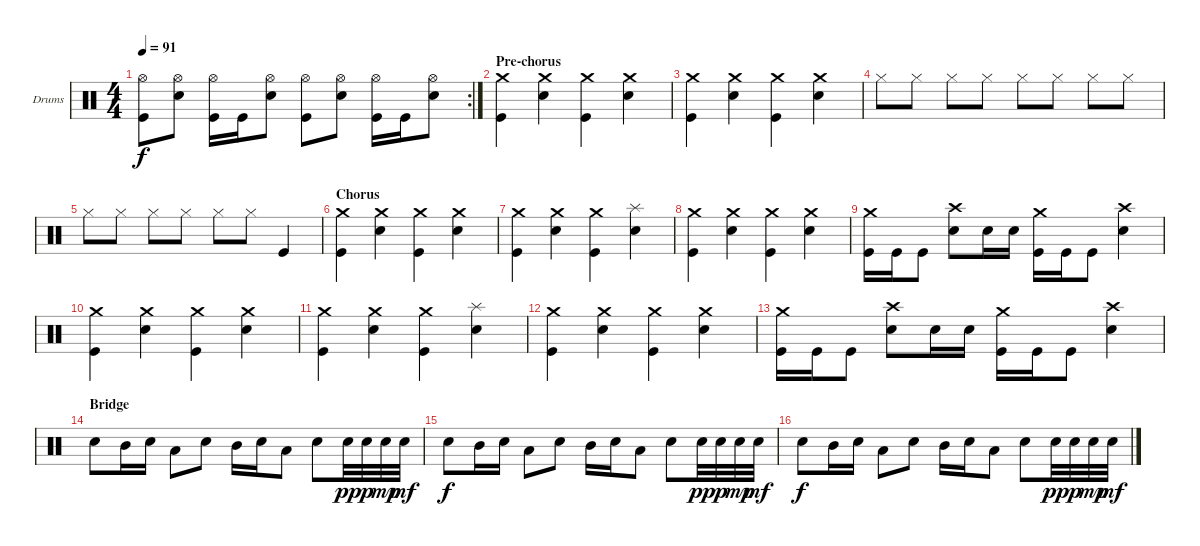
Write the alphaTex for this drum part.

\defaultSystemsLayout 4
\bracketExtendMode groupsimilarinstruments
\firstSystemTrackNameOrientation horizontal
\otherSystemsTrackNameOrientation horizontal
\track ("Drumkit" "Drums") {instrument percussion}
\staff {score}
\articulation defaults
\rc 2
\ts (4 4)
\tempo 91
\clef neutral
\scale
0.355932
\ks c
("Kick (hit)" "Hi-Hat (open)").8{dy f} ("Snare (hit) 2" "Hi-Hat (open)").8 ("Kick (hit)" "Hi-Hat (open)").16 "Kick (hit)".16 ("Snare (hit) 2" "Hi-Hat (open)").8 ("Kick (hit)" "Hi-Hat (open)").8 ("Snare (hit) 2" "Hi-Hat (open)").8 ("Kick (hit)" "Hi-Hat (open)").16 "Kick (hit)".16 ("Snare (hit) 2" "Hi-Hat (open)").8 |
\section ("" "Pre-chorus")
\scale
0.333333 ("Kick (hit)" "Crash medium (hit)").4 ("Snare (hit) 2" "Crash medium (hit)").4 ("Kick (hit)" "Crash medium (hit)").4 ("Snare (hit) 2" "Crash medium (hit)").4 |
\scale
0.333333 ("Kick (hit)" "Crash medium (hit)").4 ("Snare (hit) 2" "Crash medium (hit)").4 ("Kick (hit)" "Crash medium (hit)").4 ("Snare (hit) 2" "Crash medium (hit)").4 |
\scale
0.333333 "Hi-Hat (closed)".8 "Hi-Hat (closed)".8 "Hi-Hat (closed)".8 "Hi-Hat (closed)".8 "Hi-Hat (closed)".8 "Hi-Hat (closed)".8 "Hi-Hat (closed)".8 "Hi-Hat (closed)".8 |
\scale
0.333333 "Hi-Hat (closed)".8 "Hi-Hat (closed)".8 "Hi-Hat (closed)".8 "Hi-Hat (closed)".8 "Hi-Hat (closed)".8 "Hi-Hat (closed)".8 "Kick (hit)".4 |
\section ("" "Chorus")
\scale
0.333333 ("Kick (hit)" "Crash medium (hit)").4 ("Snare (hit) 2" "Crash medium (hit)").4 ("Kick (hit)" "Crash medium (hit)").4 ("Snare (hit) 2" "Crash medium (hit)").4 |
\scale
0.333333 ("Kick (hit)" "Crash medium (hit)").4 ("Snare (hit) 2" "Crash medium (hit)").4 ("Kick (hit)" "Crash medium (hit)").4 ("Snare (hit) 2" "Splash (hit)").4 |
\scale
0.333333 ("Kick (hit)" "Crash medium (hit)").4 ("Snare (hit) 2" "Crash medium (hit)").4 ("Kick (hit)" "Crash medium (hit)").4 ("Snare (hit) 2" "Crash medium (hit)").4 |
\scale
0.333333 ("Kick (hit)" "Crash medium (hit)").16 "Kick (hit)".16 "Kick (hit)".8 ("Snare (hit) 2" "Crash high (hit)").8 "Snare (hit) 2".16 "Snare (hit) 2".16 ("Kick (hit)" "Crash medium (hit)").16 "Kick (hit)".16 "Kick (hit)".8 ("Snare (hit) 2" "Crash high (hit)").4 |
\scale
0.333333 ("Kick (hit)" "Crash medium (hit)").4 ("Snare (hit) 2" "Crash medium (hit)").4 ("Kick (hit)" "Crash medium (hit)").4 ("Snare (hit) 2" "Crash medium (hit)").4 |
\scale
0.333333 ("Kick (hit)" "Crash medium (hit)").4 ("Snare (hit) 2" "Crash medium (hit)").4 ("Kick (hit)" "Crash medium (hit)").4 ("Snare (hit) 2" "Splash (hit)").4 |
\scale
0.333333 ("Kick (hit)" "Crash medium (hit)").4 ("Snare (hit) 2" "Crash medium (hit)").4 ("Kick (hit)" "Crash medium (hit)").4 ("Snare (hit) 2" "Crash medium (hit)").4 |
\scale
0.333333 ("Kick (hit)" "Crash medium (hit)").16 "Kick (hit)".16 "Kick (hit)".8 ("Snare (hit) 2" "Crash high (hit)").8 "Snare (hit) 2".16 "Snare (hit) 2".16 ("Kick (hit)" "Crash medium (hit)").16 "Kick (hit)".16 "Kick (hit)".8 ("Snare (hit) 2" "Crash high (hit)").4 |
\section ("" "Bridge")
\scale
0.333333 "Snare (hit) 2".8 "Mid Tom (hit)".16 "Snare (hit) 2".16 "Low Tom (hit)".8 "Snare (hit) 2".8 "Mid Tom (hit)".16 "Snare (hit) 2".16 "Low Tom (hit)".8 "Snare (hit) 2".8 "Snare (hit) 2".32{dy pp} "Snare (hit) 2".32{dy p} "Snare (hit) 2".32{dy mp} "Snare (hit) 2".32{dy mf} |
\scale
0.333333 "Snare (hit) 2".8{dy f} "Mid Tom (hit)".16 "Snare (hit) 2".16 "Low Tom (hit)".8 "Snare (hit) 2".8 "Mid Tom (hit)".16 "Snare (hit) 2".16 "Low Tom (hit)".8 "Snare (hit) 2".8 "Snare (hit) 2".32{dy pp} "Snare (hit) 2".32{dy p} "Snare (hit) 2".32{dy mp} "Snare (hit) 2".32{dy mf} |
\scale
0.333333 "Snare (hit) 2".8{dy f} "Mid Tom (hit)".16 "Snare (hit) 2".16 "Low Tom (hit)".8 "Snare (hit) 2".8 "Mid Tom (hit)".16 "Snare (hit) 2".16 "Low Tom (hit)".8 "Snare (hit) 2".8 "Snare (hit) 2".32{dy pp} "Snare (hit) 2".32{dy p} "Snare (hit) 2".32{dy mp} "Snare (hit) 2".32{dy mf}
